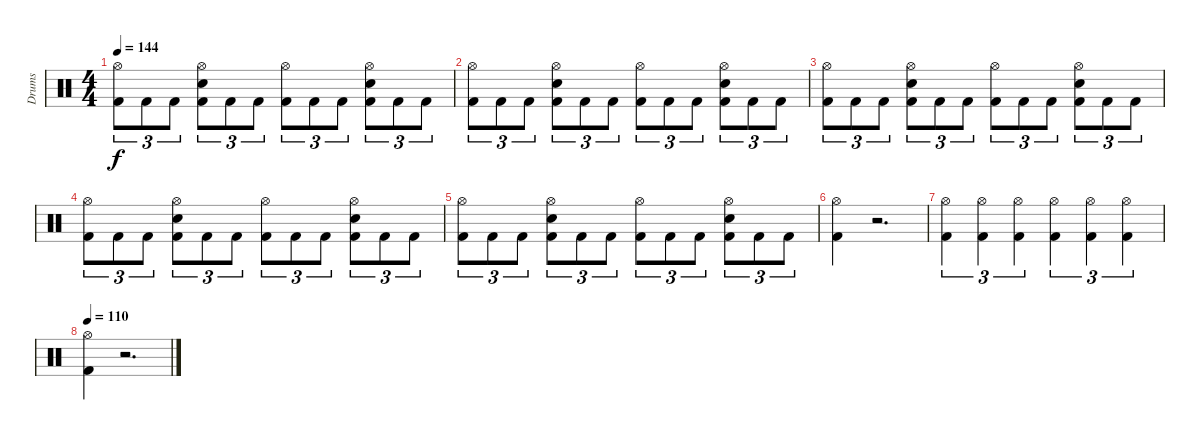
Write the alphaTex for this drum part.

\track ("Drums" "Drums") {instrument percussion}
\staff {score}
\articulation defaults
\ts (4 4)
\tempo 144
\clef neutral
\ks c
("Hi-Hat (open)" "Kick (hit) 2").8{tu (3 2) dy f} "Kick (hit) 2".8{tu (3 2)} "Kick (hit) 2".8{tu (3 2)} ("Hi-Hat (open)" "Snare (hit) 2" "Kick (hit) 2").8{tu (3 2)} "Kick (hit) 2".8{tu (3 2)} "Kick (hit) 2".8{tu (3 2)} ("Hi-Hat (open)" "Kick (hit) 2").8{tu (3 2)} "Kick (hit) 2".8{tu (3 2)} "Kick (hit) 2".8{tu (3 2)} ("Hi-Hat (open)" "Snare (hit) 2" "Kick (hit) 2").8{tu (3 2)} "Kick (hit) 2".8{tu (3 2)} "Kick (hit) 2".8{tu (3 2)} |
("Hi-Hat (open)" "Kick (hit) 2").8{tu (3 2)} "Kick (hit) 2".8{tu (3 2)} "Kick (hit) 2".8{tu (3 2)} ("Hi-Hat (open)" "Snare (hit) 2" "Kick (hit) 2").8{tu (3 2)} "Kick (hit) 2".8{tu (3 2)} "Kick (hit) 2".8{tu (3 2)} ("Hi-Hat (open)" "Kick (hit) 2").8{tu (3 2)} "Kick (hit) 2".8{tu (3 2)} "Kick (hit) 2".8{tu (3 2)} ("Hi-Hat (open)" "Snare (hit) 2" "Kick (hit) 2").8{tu (3 2)} "Kick (hit) 2".8{tu (3 2)} "Kick (hit) 2".8{tu (3 2)} |
("Hi-Hat (open)" "Kick (hit) 2").8{tu (3 2)} "Kick (hit) 2".8{tu (3 2)} "Kick (hit) 2".8{tu (3 2)} ("Hi-Hat (open)" "Snare (hit) 2" "Kick (hit) 2").8{tu (3 2)} "Kick (hit) 2".8{tu (3 2)} "Kick (hit) 2".8{tu (3 2)} ("Hi-Hat (open)" "Kick (hit) 2").8{tu (3 2)} "Kick (hit) 2".8{tu (3 2)} "Kick (hit) 2".8{tu (3 2)} ("Hi-Hat (open)" "Snare (hit) 2" "Kick (hit) 2").8{tu (3 2)} "Kick (hit) 2".8{tu (3 2)} "Kick (hit) 2".8{tu (3 2)} |
("Hi-Hat (open)" "Kick (hit) 2").8{tu (3 2)} "Kick (hit) 2".8{tu (3 2)} "Kick (hit) 2".8{tu (3 2)} ("Hi-Hat (open)" "Snare (hit) 2" "Kick (hit) 2").8{tu (3 2)} "Kick (hit) 2".8{tu (3 2)} "Kick (hit) 2".8{tu (3 2)} ("Hi-Hat (open)" "Kick (hit) 2").8{tu (3 2)} "Kick (hit) 2".8{tu (3 2)} "Kick (hit) 2".8{tu (3 2)} ("Hi-Hat (open)" "Snare (hit) 2" "Kick (hit) 2").8{tu (3 2)} "Kick (hit) 2".8{tu (3 2)} "Kick (hit) 2".8{tu (3 2)} |
("Hi-Hat (open)" "Kick (hit) 2").8{tu (3 2)} "Kick (hit) 2".8{tu (3 2)} "Kick (hit) 2".8{tu (3 2)} ("Hi-Hat (open)" "Snare (hit) 2" "Kick (hit) 2").8{tu (3 2)} "Kick (hit) 2".8{tu (3 2)} "Kick (hit) 2".8{tu (3 2)} ("Hi-Hat (open)" "Kick (hit) 2").8{tu (3 2)} "Kick (hit) 2".8{tu (3 2)} "Kick (hit) 2".8{tu (3 2)} ("Hi-Hat (open)" "Snare (hit) 2" "Kick (hit) 2").8{tu (3 2)} "Kick (hit) 2".8{tu (3 2)} "Kick (hit) 2".8{tu (3 2)} |
("Hi-Hat (open)" "Kick (hit) 2").4 r.2{d} |
("Hi-Hat (open)" "Kick (hit) 2").4{tu (3 2)} ("Hi-Hat (open)" "Kick (hit) 2").4{tu (3 2)} ("Hi-Hat (open)" "Kick (hit) 2").4{tu (3 2)} ("Hi-Hat (open)" "Kick (hit) 2").4{tu (3 2)} ("Hi-Hat (open)" "Kick (hit) 2").4{tu (3 2)} ("Hi-Hat (open)" "Kick (hit) 2").4{tu (3 2)} |
\tempo 110
("Hi-Hat (open)" "Kick (hit) 2").4 r.2{d}
